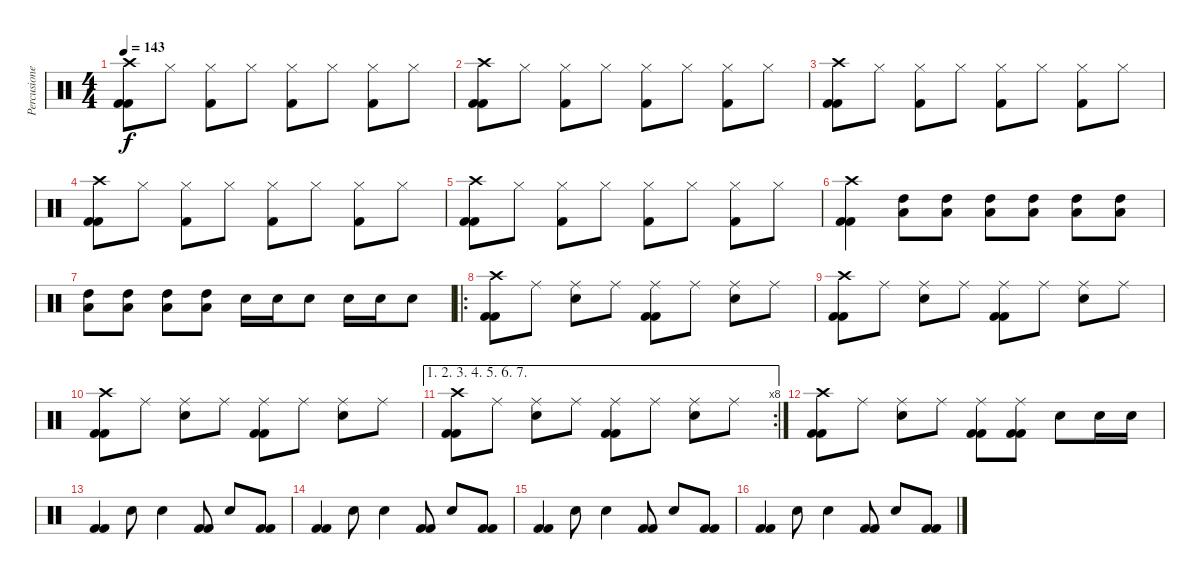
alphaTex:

\track ("Percusiones" "Percusione") {instrument percussion}
\staff {score}
\articulation defaults
\ts (4 4)
\tempo 143
\clef neutral
\ks c
("Crash high (hit)" "Kick (hit) 2" "Kick (hit) 2").8{dy f} "Hi-Hat (closed)".8 ("Kick (hit) 2" "Hi-Hat (closed)").8 "Hi-Hat (closed)".8 ("Kick (hit) 2" "Hi-Hat (closed)").8 "Hi-Hat (closed)".8 ("Kick (hit) 2" "Hi-Hat (closed)").8 "Hi-Hat (closed)".8 |
("Crash high (hit)" "Kick (hit) 2" "Kick (hit) 2").8 "Hi-Hat (closed)".8 ("Kick (hit) 2" "Hi-Hat (closed)").8 "Hi-Hat (closed)".8 ("Kick (hit) 2" "Hi-Hat (closed)").8 "Hi-Hat (closed)".8 ("Kick (hit) 2" "Hi-Hat (closed)").8 "Hi-Hat (closed)".8 |
("Crash high (hit)" "Kick (hit) 2" "Kick (hit) 2").8 "Hi-Hat (closed)".8 ("Kick (hit) 2" "Hi-Hat (closed)").8 "Hi-Hat (closed)".8 ("Kick (hit) 2" "Hi-Hat (closed)").8 "Hi-Hat (closed)".8 ("Kick (hit) 2" "Hi-Hat (closed)").8 "Hi-Hat (closed)".8 |
("Crash high (hit)" "Kick (hit) 2" "Kick (hit) 2").8 "Hi-Hat (closed)".8 ("Kick (hit) 2" "Hi-Hat (closed)").8 "Hi-Hat (closed)".8 ("Kick (hit) 2" "Hi-Hat (closed)").8 "Hi-Hat (closed)".8 ("Kick (hit) 2" "Hi-Hat (closed)").8 "Hi-Hat (closed)".8 |
("Crash high (hit)" "Kick (hit) 2" "Kick (hit) 2").8 "Hi-Hat (closed)".8 ("Kick (hit) 2" "Hi-Hat (closed)").8 "Hi-Hat (closed)".8 ("Kick (hit) 2" "Hi-Hat (closed)").8 "Hi-Hat (closed)".8 ("Kick (hit) 2" "Hi-Hat (closed)").8 "Hi-Hat (closed)".8 |
("Crash high (hit)" "Kick (hit) 2" "Kick (hit) 2").4 ("Low Tom (hit)" "High Tom (hit)").8 ("Low Tom (hit)" "High Tom (hit)").8 ("Low Tom (hit)" "High Tom (hit)").8 ("Low Tom (hit)" "High Tom (hit)").8 ("Low Tom (hit)" "High Tom (hit)").8 ("Low Tom (hit)" "High Tom (hit)").8 |
("Low Tom (hit)" "High Tom (hit)").8 ("Low Tom (hit)" "High Tom (hit)").8 ("Low Tom (hit)" "High Tom (hit)").8 ("Low Tom (hit)" "High Tom (hit)").8 "Snare (hit) 2".16 "Snare (hit) 2".16 "Snare (hit) 2".8 "Snare (hit) 2".16 "Snare (hit) 2".16 "Snare (hit) 2".8 |
\ro
("Crash high (hit)" "Kick (hit) 2" "Kick (hit) 2").8 "Ride (middle)".8 ("Ride (middle)" "Snare (hit) 2").8 "Ride (middle)".8 ("Ride (middle)" "Kick (hit) 2" "Kick (hit) 2").8 "Ride (middle)".8 ("Ride (middle)" "Snare (hit) 2").8 "Ride (middle)".8 |
("Crash high (hit)" "Kick (hit) 2" "Kick (hit) 2").8 "Ride (middle)".8 ("Ride (middle)" "Snare (hit) 2").8 "Ride (middle)".8 ("Ride (middle)" "Kick (hit) 2" "Kick (hit) 2").8 "Ride (middle)".8 ("Ride (middle)" "Snare (hit) 2").8 "Ride (middle)".8 |
("Crash high (hit)" "Kick (hit) 2" "Kick (hit) 2").8 "Ride (middle)".8 ("Ride (middle)" "Snare (hit) 2").8 "Ride (middle)".8 ("Ride (middle)" "Kick (hit) 2" "Kick (hit) 2").8 "Ride (middle)".8 ("Ride (middle)" "Snare (hit) 2").8 "Ride (middle)".8 |
\ae (1 2 3 4 5 6 7)
\rc 8
("Crash high (hit)" "Kick (hit) 2" "Kick (hit) 2").8 "Ride (middle)".8 ("Ride (middle)" "Snare (hit) 2").8 "Ride (middle)".8 ("Ride (middle)" "Kick (hit) 2" "Kick (hit) 2").8 "Ride (middle)".8 ("Ride (middle)" "Snare (hit) 2").8 "Ride (middle)".8 |
("Crash high (hit)" "Kick (hit) 2" "Kick (hit) 2").8 "Ride (middle)".8 ("Ride (middle)" "Snare (hit) 2").8 "Ride (middle)".8 ("Ride (middle)" "Kick (hit) 2" "Kick (hit) 2").8 ("Ride (middle)" "Kick (hit) 2" "Kick (hit) 2").8 "Snare (hit) 2".8 "Snare (hit) 2".16 "Snare (hit) 2".16 |
("Kick (hit) 2" "Kick (hit) 2").4 "Snare (hit) 2".8 "Snare (hit) 2".4 ("Kick (hit) 2" "Kick (hit) 2").8 "Snare (hit) 2".8 ("Kick (hit) 2" "Kick (hit) 2").8 |
("Kick (hit) 2" "Kick (hit) 2").4 "Snare (hit) 2".8 "Snare (hit) 2".4 ("Kick (hit) 2" "Kick (hit) 2").8 "Snare (hit) 2".8 ("Kick (hit) 2" "Kick (hit) 2").8 |
("Kick (hit) 2" "Kick (hit) 2").4 "Snare (hit) 2".8 "Snare (hit) 2".4 ("Kick (hit) 2" "Kick (hit) 2").8 "Snare (hit) 2".8 ("Kick (hit) 2" "Kick (hit) 2").8 |
("Kick (hit) 2" "Kick (hit) 2").4 "Snare (hit) 2".8 "Snare (hit) 2".4 ("Kick (hit) 2" "Kick (hit) 2").8 "Snare (hit) 2".8 ("Kick (hit) 2" "Kick (hit) 2").8
